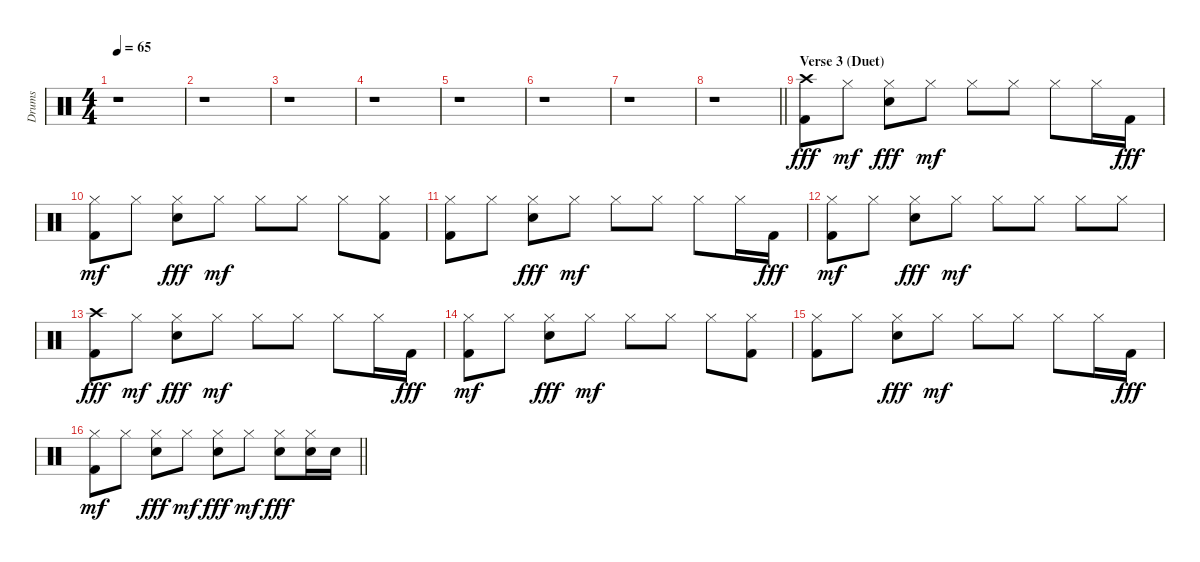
\track ("Drums" "Drums") {instrument percussion}
\staff {score}
\articulation defaults
\ts (4 4)
\tempo 65
\clef neutral
\ks c
r.1{dy f} |
r.1 |
r.1 |
r.1 |
r.1 |
r.1 |
r.1 |
\barLineRight lightlight
r.1 |
\section ("" "Verse 3 (Duet)")
("Kick (hit) 2" "Crash high (hit)").8{dy fff} "Hi-Hat (closed)".8{dy mf} ("Hi-Hat (closed)" "Snare (hit) 2").8{dy fff} "Hi-Hat (closed)".8{dy mf} "Hi-Hat (closed)".8 "Hi-Hat (closed)".8 "Hi-Hat (closed)".8 "Hi-Hat (closed)".16 "Kick (hit) 2".16{dy fff} |
("Kick (hit) 2" "Hi-Hat (closed)").8{dy mf} "Hi-Hat (closed)".8 ("Hi-Hat (closed)" "Snare (hit) 2").8{dy fff} "Hi-Hat (closed)".8{dy mf} "Hi-Hat (closed)".8 "Hi-Hat (closed)".8 "Hi-Hat (closed)".8 ("Kick (hit) 2" "Hi-Hat (closed)").8 |
("Kick (hit) 2" "Hi-Hat (closed)").8 "Hi-Hat (closed)".8 ("Hi-Hat (closed)" "Snare (hit) 2").8{dy fff} "Hi-Hat (closed)".8{dy mf} "Hi-Hat (closed)".8 "Hi-Hat (closed)".8 "Hi-Hat (closed)".8 "Hi-Hat (closed)".16 "Kick (hit) 2".16{dy fff} |
("Kick (hit) 2" "Hi-Hat (closed)").8{dy mf} "Hi-Hat (closed)".8 ("Hi-Hat (closed)" "Snare (hit) 2").8{dy fff} "Hi-Hat (closed)".8{dy mf} "Hi-Hat (closed)".8 "Hi-Hat (closed)".8 "Hi-Hat (closed)".8 "Hi-Hat (closed)".8 |
("Kick (hit) 2" "Crash high (hit)").8{dy fff} "Hi-Hat (closed)".8{dy mf} ("Hi-Hat (closed)" "Snare (hit) 2").8{dy fff} "Hi-Hat (closed)".8{dy mf} "Hi-Hat (closed)".8 "Hi-Hat (closed)".8 "Hi-Hat (closed)".8 "Hi-Hat (closed)".16 "Kick (hit) 2".16{dy fff} |
("Kick (hit) 2" "Hi-Hat (closed)").8{dy mf} "Hi-Hat (closed)".8 ("Hi-Hat (closed)" "Snare (hit) 2").8{dy fff} "Hi-Hat (closed)".8{dy mf} "Hi-Hat (closed)".8 "Hi-Hat (closed)".8 "Hi-Hat (closed)".8 ("Kick (hit) 2" "Hi-Hat (closed)").8 |
("Kick (hit) 2" "Hi-Hat (closed)").8 "Hi-Hat (closed)".8 ("Hi-Hat (closed)" "Snare (hit) 2").8{dy fff} "Hi-Hat (closed)".8{dy mf} "Hi-Hat (closed)".8 "Hi-Hat (closed)".8 "Hi-Hat (closed)".8 "Hi-Hat (closed)".16 "Kick (hit) 2".16{dy fff} |
\barLineRight lightlight
("Kick (hit) 2" "Hi-Hat (closed)").8{dy mf} "Hi-Hat (closed)".8 ("Hi-Hat (closed)" "Snare (hit) 2").8{dy fff} "Hi-Hat (closed)".8{dy mf} ("Hi-Hat (closed)" "Snare (hit) 2").8{dy fff} "Hi-Hat (closed)".8{dy mf} ("Hi-Hat (closed)" "Snare (hit) 2").8{dy fff} ("Hi-Hat (closed)" "Snare (hit) 2").16 "Snare (hit) 2".16
